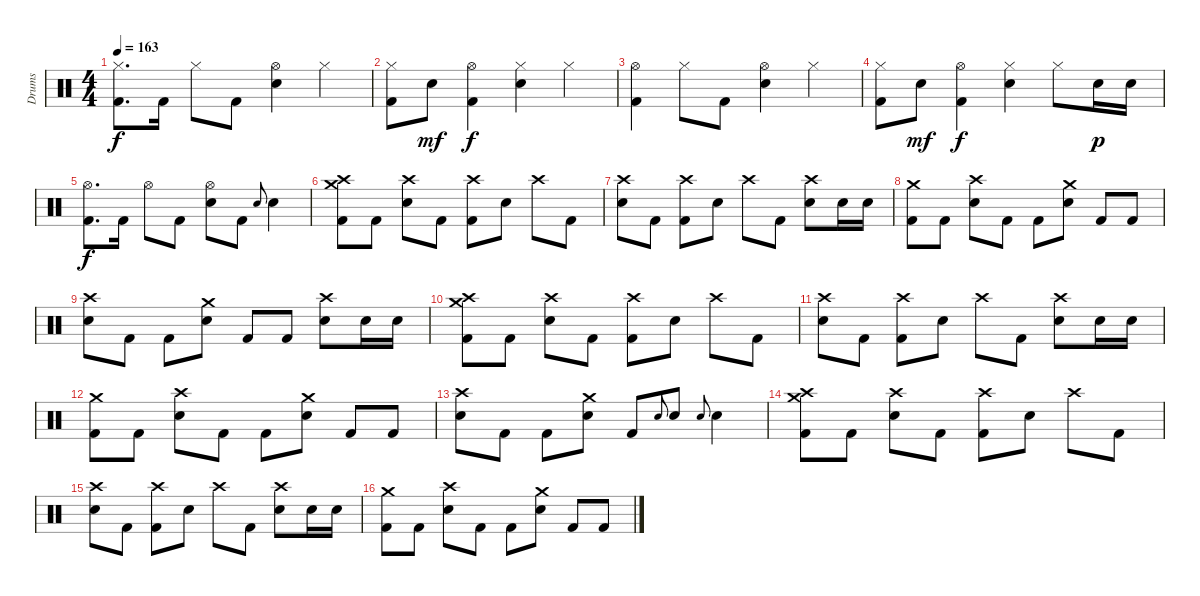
\track ("Drums" "Drums") {instrument percussion}
\staff {score}
\articulation defaults
\ts (4 4)
\tempo 163
\clef neutral
\ks c
("Hi-Hat (closed)" "Kick (hit) 2").8{d dy f} "Kick (hit) 2".16 "Hi-Hat (closed)".8 "Kick (hit) 2".8 ("Hi-Hat (open)" "Electric Snare (hit)").4 "Hi-Hat (closed)".4 |
("Hi-Hat (closed)" "Kick (hit) 2").8 "Electric Snare (hit)".8{dy mf} ("Hi-Hat (open)" "Kick (hit) 2").4{dy f} ("Hi-Hat (closed)" "Electric Snare (hit)").4 "Hi-Hat (closed)".4 |
("Hi-Hat (open)" "Kick (hit) 2").4 "Hi-Hat (closed)".8 "Kick (hit) 2".8 ("Hi-Hat (open)" "Electric Snare (hit)").4 "Hi-Hat (closed)".4 |
("Hi-Hat (closed)" "Kick (hit) 2").8 "Electric Snare (hit)".8{dy mf} ("Hi-Hat (open)" "Kick (hit) 2").4{dy f} ("Hi-Hat (closed)" "Electric Snare (hit)").4 "Hi-Hat (closed)".8 "Electric Snare (hit)".16{dy p} "Electric Snare (hit)".16 |
("Hi-Hat (open)" "Kick (hit) 2").8{d dy f} "Kick (hit) 2".16 "Hi-Hat (open)".8 "Kick (hit) 2".8 ("Hi-Hat (open)" "Electric Snare (hit)").8 "Kick (hit) 2".8 "Electric Snare (hit)".8{gr onbeat} "Electric Snare (hit)".4 |
("Crash high (hit)" "Crash medium (hit)" "Kick (hit) 2").8 "Kick (hit) 2".8 ("Crash high (hit)" "Electric Snare (hit)").8 "Kick (hit) 2".8 ("Crash high (hit)" "Kick (hit) 2").8 "Electric Snare (hit)".8 "Crash high (hit)".8 "Kick (hit) 2".8 |
("Crash high (hit)" "Electric Snare (hit)").8 "Kick (hit) 2".8 ("Crash high (hit)" "Kick (hit) 2").8 "Electric Snare (hit)".8 "Crash high (hit)".8 "Kick (hit) 2".8 ("Crash high (hit)" "Electric Snare (hit)").8 "Electric Snare (hit)".16 "Electric Snare (hit)".16 |
("Crash medium (hit)" "Kick (hit) 2").8 "Kick (hit) 2".8 ("Crash high (hit)" "Electric Snare (hit)").8 "Kick (hit) 2".8 "Kick (hit) 2".8 ("Crash medium (hit)" "Electric Snare (hit)").8 "Kick (hit) 2".8 "Kick (hit) 2".8 |
("Crash high (hit)" "Electric Snare (hit)").8 "Kick (hit) 2".8 "Kick (hit) 2".8 ("Crash medium (hit)" "Electric Snare (hit)").8 "Kick (hit) 2".8 "Kick (hit) 2".8 ("Crash high (hit)" "Electric Snare (hit)").8 "Electric Snare (hit)".16 "Electric Snare (hit)".16 |
("Crash high (hit)" "Crash medium (hit)" "Kick (hit) 2").8 "Kick (hit) 2".8 ("Crash high (hit)" "Electric Snare (hit)").8 "Kick (hit) 2".8 ("Crash high (hit)" "Kick (hit) 2").8 "Electric Snare (hit)".8 "Crash high (hit)".8 "Kick (hit) 2".8 |
("Crash high (hit)" "Electric Snare (hit)").8 "Kick (hit) 2".8 ("Crash high (hit)" "Kick (hit) 2").8 "Electric Snare (hit)".8 "Crash high (hit)".8 "Kick (hit) 2".8 ("Crash high (hit)" "Electric Snare (hit)").8 "Electric Snare (hit)".16 "Electric Snare (hit)".16 |
("Crash medium (hit)" "Kick (hit) 2").8 "Kick (hit) 2".8 ("Crash high (hit)" "Electric Snare (hit)").8 "Kick (hit) 2".8 "Kick (hit) 2".8 ("Crash medium (hit)" "Electric Snare (hit)").8 "Kick (hit) 2".8 "Kick (hit) 2".8 |
("Crash high (hit)" "Electric Snare (hit)").8 "Kick (hit) 2".8 "Kick (hit) 2".8 ("Crash medium (hit)" "Electric Snare (hit)").8 "Kick (hit) 2".8 "Electric Snare (hit)".8{gr onbeat} "Electric Snare (hit)".8 "Electric Snare (hit)".8{gr onbeat} "Electric Snare (hit)".4 |
("Crash high (hit)" "Crash medium (hit)" "Kick (hit) 2").8 "Kick (hit) 2".8 ("Crash high (hit)" "Electric Snare (hit)").8 "Kick (hit) 2".8 ("Crash high (hit)" "Kick (hit) 2").8 "Electric Snare (hit)".8 "Crash high (hit)".8 "Kick (hit) 2".8 |
("Crash high (hit)" "Electric Snare (hit)").8 "Kick (hit) 2".8 ("Crash high (hit)" "Kick (hit) 2").8 "Electric Snare (hit)".8 "Crash high (hit)".8 "Kick (hit) 2".8 ("Crash high (hit)" "Electric Snare (hit)").8 "Electric Snare (hit)".16 "Electric Snare (hit)".16 |
("Crash medium (hit)" "Kick (hit) 2").8 "Kick (hit) 2".8 ("Crash high (hit)" "Electric Snare (hit)").8 "Kick (hit) 2".8 "Kick (hit) 2".8 ("Crash medium (hit)" "Electric Snare (hit)").8 "Kick (hit) 2".8 "Kick (hit) 2".8
